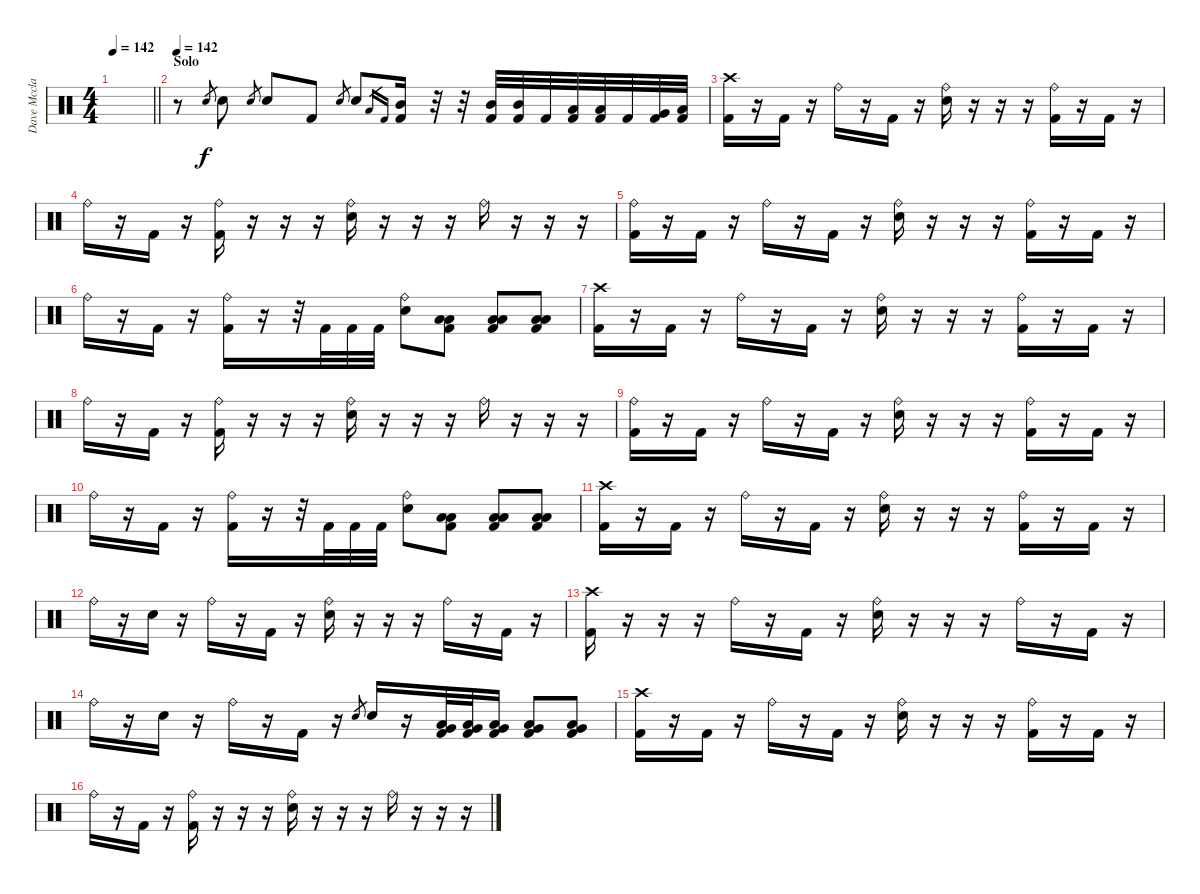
\track ("Dave Mcclain" "Dave Mccla") {instrument percussion}
\staff {score}
\articulation defaults
\ts (4 4)
\tempo 142
\clef neutral
\barLineRight lightlight
\ks c
|
\section ("" "Solo")
\tempo 142
r.8 "Electric Snare (hit)".8{gr} "Electric Snare (hit)".8 "Electric Snare (hit)".8{gr} "Electric Snare (hit)".8 "Kick (hit) 2".8 "Electric Snare (hit)".8{gr} "Electric Snare (hit)".8 "Low Tom (hit)".16{gr} "Kick (hit) 2".16{gr} ("Mid Tom (hit)" "Kick (hit) 2").16 r.32 r.32 ("Mid Tom (hit)" "Kick (hit) 2").32 ("Mid Tom (hit)" "Kick (hit) 2").32 "Kick (hit) 2".32 ("Low Tom (hit)" "Kick (hit) 2").32 ("Low Tom (hit)" "Kick (hit) 2").32 "Kick (hit) 2".32 ("Very Low Tom (hit)" "Kick (hit) 2").32 ("Low Floor Tom (hit)" "Kick (hit) 2").32 |
("Crash high (hit)" "Kick (hit) 2").16 r.16 "Kick (hit) 2".16 r.16 "Ride (bell)".16 r.16 "Kick (hit) 2".16 r.16 ("Ride (bell)" "Electric Snare (hit)").16 r.16 r.16 r.16 ("Ride (bell)" "Kick (hit) 2").16 r.16 "Kick (hit) 2".16 r.16 |
"Ride (bell)".16 r.16 "Kick (hit) 2".16 r.16 ("Ride (bell)" "Kick (hit) 2").16 r.16 r.16 r.16 ("Ride (bell)" "Electric Snare (hit)").16 r.16 r.16 r.16 "Ride (bell)".16 r.16 r.16 r.16 |
("Ride (bell)" "Kick (hit) 2").16 r.16 "Kick (hit) 2".16 r.16 "Ride (bell)".16 r.16 "Kick (hit) 2".16 r.16 ("Ride (bell)" "Electric Snare (hit)").16 r.16 r.16 r.16 ("Ride (bell)" "Kick (hit) 2").16 r.16 "Kick (hit) 2".16 r.16 |
"Ride (bell)".16 r.16 "Kick (hit) 2".16 r.16 ("Ride (bell)" "Kick (hit) 2").16 r.16 r.32 "Kick (hit) 2".32 "Kick (hit) 2".32 "Kick (hit) 2".32 ("Ride (bell)" "Electric Snare (hit)").8 ("Low Tom (hit)" "Low Floor Tom (hit)" "Kick (hit) 2").8 ("Low Tom (hit)" "Low Floor Tom (hit)" "Kick (hit) 2").8 ("Low Tom (hit)" "Low Floor Tom (hit)" "Kick (hit) 2").8 |
("Crash high (hit)" "Kick (hit) 2").16 r.16 "Kick (hit) 2".16 r.16 "Ride (bell)".16 r.16 "Kick (hit) 2".16 r.16 ("Ride (bell)" "Electric Snare (hit)").16 r.16 r.16 r.16 ("Ride (bell)" "Kick (hit) 2").16 r.16 "Kick (hit) 2".16 r.16 |
"Ride (bell)".16 r.16 "Kick (hit) 2".16 r.16 ("Ride (bell)" "Kick (hit) 2").16 r.16 r.16 r.16 ("Ride (bell)" "Electric Snare (hit)").16 r.16 r.16 r.16 "Ride (bell)".16 r.16 r.16 r.16 |
("Ride (bell)" "Kick (hit) 2").16 r.16 "Kick (hit) 2".16 r.16 "Ride (bell)".16 r.16 "Kick (hit) 2".16 r.16 ("Ride (bell)" "Electric Snare (hit)").16 r.16 r.16 r.16 ("Ride (bell)" "Kick (hit) 2").16 r.16 "Kick (hit) 2".16 r.16 |
"Ride (bell)".16 r.16 "Kick (hit) 2".16 r.16 ("Ride (bell)" "Kick (hit) 2").16 r.16 r.32 "Kick (hit) 2".32 "Kick (hit) 2".32 "Kick (hit) 2".32 ("Ride (bell)" "Electric Snare (hit)").8 ("Low Tom (hit)" "Low Floor Tom (hit)" "Kick (hit) 2").8 ("Low Tom (hit)" "Low Floor Tom (hit)" "Kick (hit) 2").8 ("Low Tom (hit)" "Low Floor Tom (hit)" "Kick (hit) 2").8 |
("Crash high (hit)" "Kick (hit) 2").16 r.16 "Kick (hit) 2".16 r.16 "Ride (bell)".16 r.16 "Kick (hit) 2".16 r.16 ("Ride (bell)" "Electric Snare (hit)").16 r.16 r.16 r.16 ("Ride (bell)" "Kick (hit) 2").16 r.16 "Kick (hit) 2".16 r.16 |
"Ride (bell)".16 r.16 "Electric Snare (hit)".16 r.16 "Ride (bell)".16 r.16 "Kick (hit) 2".16 r.16 ("Ride (bell)" "Electric Snare (hit)").16 r.16 r.16 r.16 "Ride (bell)".16 r.16 "Kick (hit) 2".16 r.16 |
("Crash high (hit)" "Kick (hit) 2").16 r.16 r.16 r.16 "Ride (bell)".16 r.16 "Kick (hit) 2".16 r.16 ("Ride (bell)" "Electric Snare (hit)").16 r.16 r.16 r.16 "Ride (bell)".16 r.16 "Kick (hit) 2".16 r.16 |
"Ride (bell)".16 r.16 "Electric Snare (hit)".16 r.16 "Ride (bell)".16 r.16 "Kick (hit) 2".16 r.16 "Electric Snare (hit)".8{gr} "Electric Snare (hit)".16 r.16 ("Very Low Tom (hit)" "Low Floor Tom (hit)" "Kick (hit) 2").32 ("Very Low Tom (hit)" "Low Floor Tom (hit)" "Kick (hit) 2").32 ("Very Low Tom (hit)" "Low Floor Tom (hit)" "Kick (hit) 2").16 ("Very Low Tom (hit)" "Low Floor Tom (hit)" "Kick (hit) 2").8 ("Very Low Tom (hit)" "Low Floor Tom (hit)" "Kick (hit) 2").8 |
("Crash high (hit)" "Kick (hit) 2").16 r.16 "Kick (hit) 2".16 r.16 "Ride (bell)".16 r.16 "Kick (hit) 2".16 r.16 ("Ride (bell)" "Electric Snare (hit)").16 r.16 r.16 r.16 ("Ride (bell)" "Kick (hit) 2").16 r.16 "Kick (hit) 2".16 r.16 |
"Ride (bell)".16 r.16 "Kick (hit) 2".16 r.16 ("Ride (bell)" "Kick (hit) 2").16 r.16 r.16 r.16 ("Ride (bell)" "Electric Snare (hit)").16 r.16 r.16 r.16 "Ride (bell)".16 r.16 r.16 r.16
